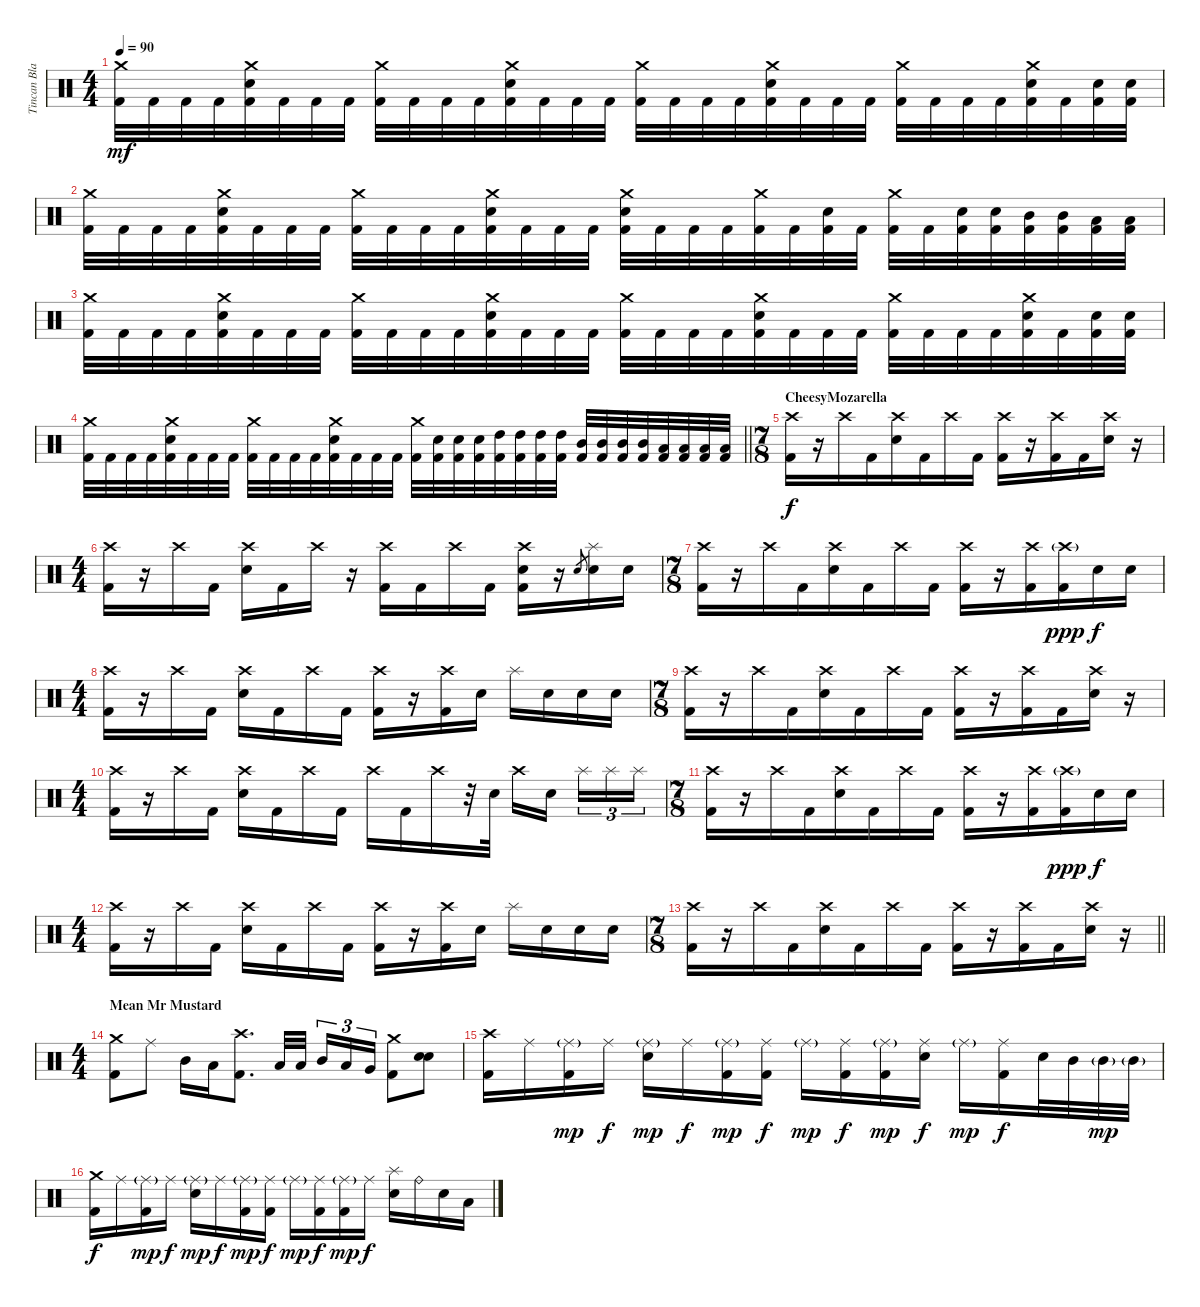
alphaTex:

\track ("Tincan Blaster" "Tincan Bla") {instrument percussion}
\staff {score}
\articulation defaults
\ts (4 4)
\tempo 90
\clef neutral
\ks c
("Crash medium (hit)" "Kick (hit) 2").32{dy mf} "Kick (hit) 2".32 "Kick (hit) 2".32 "Kick (hit) 2".32 ("Crash medium (hit)" "Electric Snare (hit)" "Kick (hit) 2").32 "Kick (hit) 2".32 "Kick (hit) 2".32 "Kick (hit) 2".32 ("Crash medium (hit)" "Kick (hit) 2").32 "Kick (hit) 2".32 "Kick (hit) 2".32 "Kick (hit) 2".32 ("Crash medium (hit)" "Electric Snare (hit)" "Kick (hit) 2").32 "Kick (hit) 2".32 "Kick (hit) 2".32 "Kick (hit) 2".32 ("Crash medium (hit)" "Kick (hit) 2").32 "Kick (hit) 2".32 "Kick (hit) 2".32 "Kick (hit) 2".32 ("Crash medium (hit)" "Electric Snare (hit)" "Kick (hit) 2").32 "Kick (hit) 2".32 "Kick (hit) 2".32 "Kick (hit) 2".32 ("Crash medium (hit)" "Kick (hit) 2").32 "Kick (hit) 2".32 "Kick (hit) 2".32 "Kick (hit) 2".32 ("Crash medium (hit)" "Electric Snare (hit)" "Kick (hit) 2").32 "Kick (hit) 2".32 ("Electric Snare (hit)" "Kick (hit) 2").32 ("Electric Snare (hit)" "Kick (hit) 2").32 |
("Crash medium (hit)" "Kick (hit) 2").32 "Kick (hit) 2".32 "Kick (hit) 2".32 "Kick (hit) 2".32 ("Crash medium (hit)" "Electric Snare (hit)" "Kick (hit) 2").32 "Kick (hit) 2".32 "Kick (hit) 2".32 "Kick (hit) 2".32 ("Crash medium (hit)" "Kick (hit) 2").32 "Kick (hit) 2".32 "Kick (hit) 2".32 "Kick (hit) 2".32 ("Crash medium (hit)" "Electric Snare (hit)" "Kick (hit) 2").32 "Kick (hit) 2".32 "Kick (hit) 2".32 "Kick (hit) 2".32 ("Crash medium (hit)" "Electric Snare (hit)" "Kick (hit) 2").32 "Kick (hit) 2".32 "Kick (hit) 2".32 "Kick (hit) 2".32 ("Crash medium (hit)" "Kick (hit) 2").32 "Kick (hit) 2".32 ("Electric Snare (hit)" "Kick (hit) 2").32 "Kick (hit) 2".32 ("Crash medium (hit)" "Kick (hit) 2").32 "Kick (hit) 2".32 ("Electric Snare (hit)" "Kick (hit) 2").32 ("Electric Snare (hit)" "Kick (hit) 2").32 ("Mid Tom (hit)" "Kick (hit) 2").32 ("Mid Tom (hit)" "Kick (hit) 2").32 ("Low Tom (hit)" "Kick (hit) 2").32 ("Low Tom (hit)" "Kick (hit) 2").32 |
("Crash medium (hit)" "Kick (hit) 2").32 "Kick (hit) 2".32 "Kick (hit) 2".32 "Kick (hit) 2".32 ("Crash medium (hit)" "Electric Snare (hit)" "Kick (hit) 2").32 "Kick (hit) 2".32 "Kick (hit) 2".32 "Kick (hit) 2".32 ("Crash medium (hit)" "Kick (hit) 2").32 "Kick (hit) 2".32 "Kick (hit) 2".32 "Kick (hit) 2".32 ("Crash medium (hit)" "Electric Snare (hit)" "Kick (hit) 2").32 "Kick (hit) 2".32 "Kick (hit) 2".32 "Kick (hit) 2".32 ("Crash medium (hit)" "Kick (hit) 2").32 "Kick (hit) 2".32 "Kick (hit) 2".32 "Kick (hit) 2".32 ("Crash medium (hit)" "Electric Snare (hit)" "Kick (hit) 2").32 "Kick (hit) 2".32 "Kick (hit) 2".32 "Kick (hit) 2".32 ("Crash medium (hit)" "Kick (hit) 2").32 "Kick (hit) 2".32 "Kick (hit) 2".32 "Kick (hit) 2".32 ("Crash medium (hit)" "Electric Snare (hit)" "Kick (hit) 2").32 "Kick (hit) 2".32 ("Electric Snare (hit)" "Kick (hit) 2").32 ("Electric Snare (hit)" "Kick (hit) 2").32 |
\barLineRight lightlight
("Crash medium (hit)" "Kick (hit) 2").32 "Kick (hit) 2".32 "Kick (hit) 2".32 "Kick (hit) 2".32 ("Crash medium (hit)" "Electric Snare (hit)" "Kick (hit) 2").32 "Kick (hit) 2".32 "Kick (hit) 2".32 "Kick (hit) 2".32 ("Crash medium (hit)" "Kick (hit) 2").32 "Kick (hit) 2".32 "Kick (hit) 2".32 "Kick (hit) 2".32 ("Crash medium (hit)" "Electric Snare (hit)" "Kick (hit) 2").32 "Kick (hit) 2".32 "Kick (hit) 2".32 "Kick (hit) 2".32 ("Crash medium (hit)" "Kick (hit) 2").32 ("Electric Snare (hit)" "Kick (hit) 2").32 ("Electric Snare (hit)" "Kick (hit) 2").32 ("Electric Snare (hit)" "Kick (hit) 2").32 ("High Tom (hit)" "Kick (hit) 2").32 ("High Tom (hit)" "Kick (hit) 2").32 ("High Tom (hit)" "Kick (hit) 2").32 ("High Tom (hit)" "Kick (hit) 2").32 ("Mid Tom (hit)" "Kick (hit) 2").32 ("Mid Tom (hit)" "Kick (hit) 2").32 ("Mid Tom (hit)" "Kick (hit) 2").32 ("Mid Tom (hit)" "Kick (hit) 2").32 ("Low Tom (hit)" "Kick (hit) 2").32 ("Low Tom (hit)" "Kick (hit) 2").32 ("Low Tom (hit)" "Kick (hit) 2").32 ("Low Tom (hit)" "Kick (hit) 2").32 |
\ts (7 8)
\section ("" "CheesyMozarella")
("Crash high (hit)" "Kick (hit) 2").16{dy f} r.16 "Crash high (hit)".16 "Kick (hit) 2".16 ("Crash high (hit)" "Electric Snare (hit)").16 "Kick (hit) 2".16 "Crash high (hit)".16 "Kick (hit) 2".16 ("Crash high (hit)" "Kick (hit) 2").16 r.16 ("Crash high (hit)" "Kick (hit) 2").16 "Kick (hit) 2".16 ("Crash high (hit)" "Electric Snare (hit)").16 r.16 |
\ts (4 4)
("Crash high (hit)" "Kick (hit) 2").16 r.16 "Crash high (hit)".16 "Kick (hit) 2".16 ("Crash high (hit)" "Electric Snare (hit)").16 "Kick (hit) 2".16 "Crash high (hit)".16 r.16 ("Crash high (hit)" "Kick (hit) 2").16 "Kick (hit) 2".16 "Crash high (hit)".16 "Kick (hit) 2".16 ("Crash high (hit)" "Electric Snare (hit)" "Kick (hit) 2").16 r.16 "Electric Snare (hit)".8{gr} ("Splash (hit)" "Electric Snare (hit)").16 "Electric Snare (hit)".16 |
\ts (7 8)
("Crash high (hit)" "Kick (hit) 2").16 r.16 "Crash high (hit)".16 "Kick (hit) 2".16 ("Crash high (hit)" "Electric Snare (hit)").16 "Kick (hit) 2".16 "Crash high (hit)".16 "Kick (hit) 2".16 ("Crash high (hit)" "Kick (hit) 2").16 r.16 ("Crash high (hit)" "Kick (hit) 2").16 ("Crash high (hit)"{g} "Kick (hit) 2").16{dy ppp} "Electric Snare (hit)".16{dy f} "Electric Snare (hit)".16 |
\ts (4 4)
("Crash high (hit)" "Kick (hit) 2").16 r.16 "Crash high (hit)".16 "Kick (hit) 2".16 ("Crash high (hit)" "Electric Snare (hit)").16 "Kick (hit) 2".16 "Crash high (hit)".16 "Kick (hit) 2".16 ("Crash high (hit)" "Kick (hit) 2").16 r.16 ("Crash high (hit)" "Kick (hit) 2").16 "Electric Snare (hit)".16 "Splash (hit)".16 "Electric Snare (hit)".16 "Electric Snare (hit)".16 "Electric Snare (hit)".16 |
\ts (7 8)
("Crash high (hit)" "Kick (hit) 2").16 r.16 "Crash high (hit)".16 "Kick (hit) 2".16 ("Crash high (hit)" "Electric Snare (hit)").16 "Kick (hit) 2".16 "Crash high (hit)".16 "Kick (hit) 2".16 ("Crash high (hit)" "Kick (hit) 2").16 r.16 ("Crash high (hit)" "Kick (hit) 2").16 "Kick (hit) 2".16 ("Crash high (hit)" "Electric Snare (hit)").16 r.16 |
\ts (4 4)
("Crash high (hit)" "Kick (hit) 2").16 r.16 "Crash high (hit)".16 "Kick (hit) 2".16 ("Crash high (hit)" "Electric Snare (hit)").16 "Kick (hit) 2".16 "Crash high (hit)".16 "Kick (hit) 2".16 "Crash high (hit)".16 "Kick (hit) 2".16 "Crash high (hit)".16 r.32 "Electric Snare (hit)".32 "Crash high (hit)".16 "Electric Snare (hit)".16{beam splitsecondary} "Splash (hit)".16{tu (3 2)} "Splash (hit)".16{tu (3 2)} "Splash (hit)".16{tu (3 2)} |
\ts (7 8)
("Crash high (hit)" "Kick (hit) 2").16 r.16 "Crash high (hit)".16 "Kick (hit) 2".16 ("Crash high (hit)" "Electric Snare (hit)").16 "Kick (hit) 2".16 "Crash high (hit)".16 "Kick (hit) 2".16 ("Crash high (hit)" "Kick (hit) 2").16 r.16 ("Crash high (hit)" "Kick (hit) 2").16 ("Crash high (hit)"{g} "Kick (hit) 2").16{dy ppp} "Electric Snare (hit)".16{dy f} "Electric Snare (hit)".16 |
\ts (4 4)
("Crash high (hit)" "Kick (hit) 2").16 r.16 "Crash high (hit)".16 "Kick (hit) 2".16 ("Crash high (hit)" "Electric Snare (hit)").16 "Kick (hit) 2".16 "Crash high (hit)".16 "Kick (hit) 2".16 ("Crash high (hit)" "Kick (hit) 2").16 r.16 ("Crash high (hit)" "Kick (hit) 2").16 "Electric Snare (hit)".16 "Splash (hit)".16 "Electric Snare (hit)".16 "Electric Snare (hit)".16 "Electric Snare (hit)".16 |
\ts (7 8)
\barLineRight lightlight
("Crash high (hit)" "Kick (hit) 2").16 r.16 "Crash high (hit)".16 "Kick (hit) 2".16 ("Crash high (hit)" "Electric Snare (hit)").16 "Kick (hit) 2".16 "Crash high (hit)".16 "Kick (hit) 2".16 ("Crash high (hit)" "Kick (hit) 2").16 r.16 ("Crash high (hit)" "Kick (hit) 2").16 "Kick (hit) 2".16 ("Crash high (hit)" "Electric Snare (hit)").16 r.16 |
\ts (4 4)
\section ("" "Mean Mr Mustard")
("Crash medium (hit)" "Kick (hit) 2").8 "Ride (middle)".8 "Mid Tom (hit)".16 "Low Tom (hit)".16 ("Crash high (hit)" "Kick (hit) 2").8{d} "Low Tom (hit)".32 "Low Tom (hit)".32{beam splitsecondary} "Mid Tom (hit)".16{tu (3 2)} "Low Tom (hit)".16{tu (3 2)} "Very Low Tom (hit)".16{tu (3 2)} ("Crash medium (hit)" "Kick (hit) 2").8 ("Electric Snare (hit)" "Electric Snare (hit)").8{bu 120} |
("Crash high (hit)" "Kick (hit) 2").16 "Ride (middle)".16 ("Ride (middle)"{g} "Kick (hit) 2").16{dy mp} "Ride (middle)".16{dy f} ("Ride (middle)"{g} "Electric Snare (hit)").16{dy mp} "Ride (middle)".16{dy f} ("Ride (middle)"{g} "Kick (hit) 2").16{dy mp} ("Ride (middle)" "Kick (hit) 2").16{dy f} "Ride (middle)"{g}.16{dy mp} ("Ride (middle)" "Kick (hit) 2").16{dy f} ("Ride (middle)"{g} "Kick (hit) 2").16{dy mp} ("Ride (middle)" "Electric Snare (hit)").16{dy f} "Ride (middle)"{g}.16{dy mp} ("Ride (middle)" "Kick (hit) 2").16{dy f} "Electric Snare (hit)".32 "Mid Tom (hit)".32 "Mid Tom (hit)"{g}.32{dy mp} "Mid Tom (hit)"{g}.32 |
("Crash medium (hit)" "Kick (hit) 2").16{dy f} "Ride (middle)".16 ("Ride (middle)"{g} "Kick (hit) 2").16{dy mp} "Ride (middle)".16{dy f} ("Ride (middle)"{g} "Electric Snare (hit)").16{dy mp} "Ride (middle)".16{dy f} ("Ride (middle)"{g} "Kick (hit) 2").16{dy mp} ("Ride (middle)" "Kick (hit) 2").16{dy f} "Ride (middle)"{g}.16{dy mp} ("Ride (middle)" "Kick (hit) 2").16{dy f} ("Ride (middle)"{g} "Kick (hit) 2").16{dy mp} "Ride (middle)".16{dy f} ("Splash (hit)" "Electric Snare (hit)").16 "Ride (bell)".16 "Electric Snare (hit)".16 "Low Tom (hit)".16
